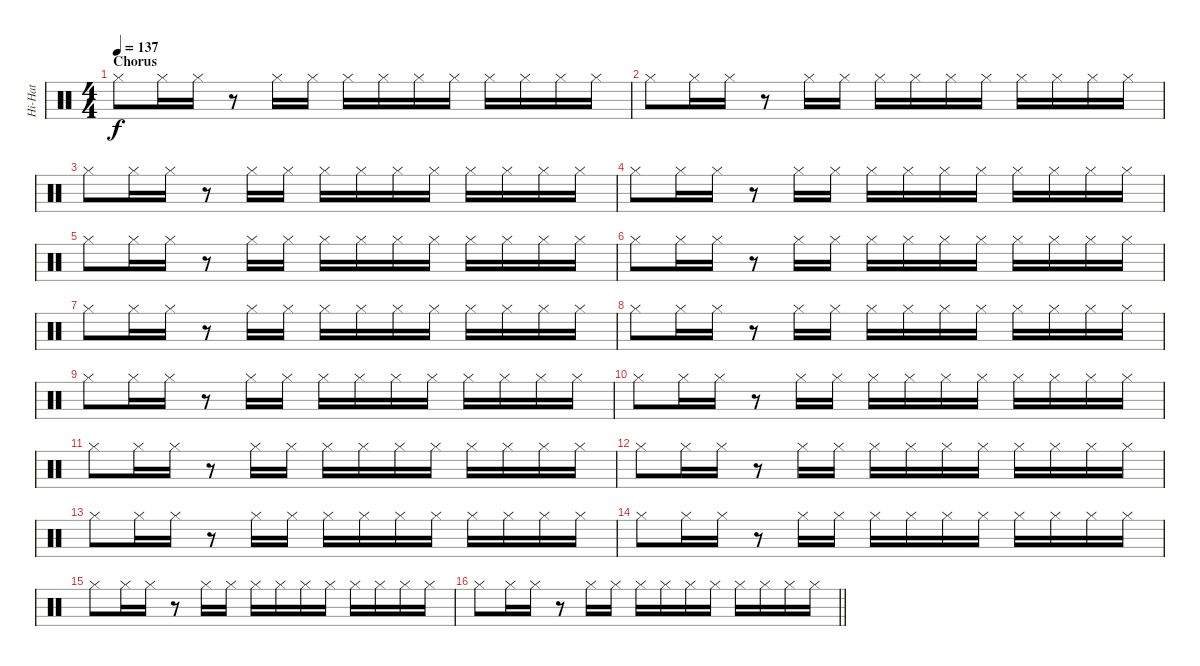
\track ("Hi-Hat" "Hi-Hat") {instrument percussion}
\staff {score}
\articulation defaults
\ts (4 4)
\section ("" "Chorus")
\tempo 137
\clef neutral
\ks c "Hi-Hat (closed)".8{dy f} "Hi-Hat (closed)".16 "Hi-Hat (closed)".16
r.8 "Hi-Hat (closed)".16 "Hi-Hat (closed)".16 "Hi-Hat (closed)".16 "Hi-Hat (closed)".16 "Hi-Hat (closed)".16 "Hi-Hat (closed)".16 "Hi-Hat (closed)".16 "Hi-Hat (closed)".16 "Hi-Hat (closed)".16 "Hi-Hat (closed)".16 |
"Hi-Hat (closed)".8 "Hi-Hat (closed)".16 "Hi-Hat (closed)".16 r.8 "Hi-Hat (closed)".16 "Hi-Hat (closed)".16 "Hi-Hat (closed)".16 "Hi-Hat (closed)".16 "Hi-Hat (closed)".16 "Hi-Hat (closed)".16 "Hi-Hat (closed)".16 "Hi-Hat (closed)".16 "Hi-Hat (closed)".16 "Hi-Hat (closed)".16 |
"Hi-Hat (closed)".8 "Hi-Hat (closed)".16 "Hi-Hat (closed)".16 r.8 "Hi-Hat (closed)".16 "Hi-Hat (closed)".16 "Hi-Hat (closed)".16 "Hi-Hat (closed)".16 "Hi-Hat (closed)".16 "Hi-Hat (closed)".16 "Hi-Hat (closed)".16 "Hi-Hat (closed)".16 "Hi-Hat (closed)".16 "Hi-Hat (closed)".16 |
"Hi-Hat (closed)".8 "Hi-Hat (closed)".16 "Hi-Hat (closed)".16 r.8 "Hi-Hat (closed)".16 "Hi-Hat (closed)".16 "Hi-Hat (closed)".16 "Hi-Hat (closed)".16 "Hi-Hat (closed)".16 "Hi-Hat (closed)".16 "Hi-Hat (closed)".16 "Hi-Hat (closed)".16 "Hi-Hat (closed)".16 "Hi-Hat (closed)".16 |
"Hi-Hat (closed)".8 "Hi-Hat (closed)".16 "Hi-Hat (closed)".16 r.8 "Hi-Hat (closed)".16 "Hi-Hat (closed)".16 "Hi-Hat (closed)".16 "Hi-Hat (closed)".16 "Hi-Hat (closed)".16 "Hi-Hat (closed)".16 "Hi-Hat (closed)".16 "Hi-Hat (closed)".16 "Hi-Hat (closed)".16 "Hi-Hat (closed)".16 |
"Hi-Hat (closed)".8 "Hi-Hat (closed)".16 "Hi-Hat (closed)".16 r.8 "Hi-Hat (closed)".16 "Hi-Hat (closed)".16 "Hi-Hat (closed)".16 "Hi-Hat (closed)".16 "Hi-Hat (closed)".16 "Hi-Hat (closed)".16 "Hi-Hat (closed)".16 "Hi-Hat (closed)".16 "Hi-Hat (closed)".16 "Hi-Hat (closed)".16 |
"Hi-Hat (closed)".8 "Hi-Hat (closed)".16 "Hi-Hat (closed)".16 r.8 "Hi-Hat (closed)".16 "Hi-Hat (closed)".16 "Hi-Hat (closed)".16 "Hi-Hat (closed)".16 "Hi-Hat (closed)".16 "Hi-Hat (closed)".16 "Hi-Hat (closed)".16 "Hi-Hat (closed)".16 "Hi-Hat (closed)".16 "Hi-Hat (closed)".16 |
"Hi-Hat (closed)".8 "Hi-Hat (closed)".16 "Hi-Hat (closed)".16 r.8 "Hi-Hat (closed)".16 "Hi-Hat (closed)".16 "Hi-Hat (closed)".16 "Hi-Hat (closed)".16 "Hi-Hat (closed)".16 "Hi-Hat (closed)".16 "Hi-Hat (closed)".16 "Hi-Hat (closed)".16 "Hi-Hat (closed)".16 "Hi-Hat (closed)".16 |
"Hi-Hat (closed)".8 "Hi-Hat (closed)".16 "Hi-Hat (closed)".16 r.8 "Hi-Hat (closed)".16 "Hi-Hat (closed)".16 "Hi-Hat (closed)".16 "Hi-Hat (closed)".16 "Hi-Hat (closed)".16 "Hi-Hat (closed)".16 "Hi-Hat (closed)".16 "Hi-Hat (closed)".16 "Hi-Hat (closed)".16 "Hi-Hat (closed)".16 |
"Hi-Hat (closed)".8 "Hi-Hat (closed)".16 "Hi-Hat (closed)".16 r.8 "Hi-Hat (closed)".16 "Hi-Hat (closed)".16 "Hi-Hat (closed)".16 "Hi-Hat (closed)".16 "Hi-Hat (closed)".16 "Hi-Hat (closed)".16 "Hi-Hat (closed)".16 "Hi-Hat (closed)".16 "Hi-Hat (closed)".16 "Hi-Hat (closed)".16 |
"Hi-Hat (closed)".8 "Hi-Hat (closed)".16 "Hi-Hat (closed)".16 r.8 "Hi-Hat (closed)".16 "Hi-Hat (closed)".16 "Hi-Hat (closed)".16 "Hi-Hat (closed)".16 "Hi-Hat (closed)".16 "Hi-Hat (closed)".16 "Hi-Hat (closed)".16 "Hi-Hat (closed)".16 "Hi-Hat (closed)".16 "Hi-Hat (closed)".16 |
"Hi-Hat (closed)".8 "Hi-Hat (closed)".16 "Hi-Hat (closed)".16 r.8 "Hi-Hat (closed)".16 "Hi-Hat (closed)".16 "Hi-Hat (closed)".16 "Hi-Hat (closed)".16 "Hi-Hat (closed)".16 "Hi-Hat (closed)".16 "Hi-Hat (closed)".16 "Hi-Hat (closed)".16 "Hi-Hat (closed)".16 "Hi-Hat (closed)".16 |
"Hi-Hat (closed)".8 "Hi-Hat (closed)".16 "Hi-Hat (closed)".16 r.8 "Hi-Hat (closed)".16 "Hi-Hat (closed)".16 "Hi-Hat (closed)".16 "Hi-Hat (closed)".16 "Hi-Hat (closed)".16 "Hi-Hat (closed)".16 "Hi-Hat (closed)".16 "Hi-Hat (closed)".16 "Hi-Hat (closed)".16 "Hi-Hat (closed)".16 |
"Hi-Hat (closed)".8 "Hi-Hat (closed)".16 "Hi-Hat (closed)".16 r.8 "Hi-Hat (closed)".16 "Hi-Hat (closed)".16 "Hi-Hat (closed)".16 "Hi-Hat (closed)".16 "Hi-Hat (closed)".16 "Hi-Hat (closed)".16 "Hi-Hat (closed)".16 "Hi-Hat (closed)".16 "Hi-Hat (closed)".16 "Hi-Hat (closed)".16 |
"Hi-Hat (closed)".8 "Hi-Hat (closed)".16 "Hi-Hat (closed)".16 r.8 "Hi-Hat (closed)".16 "Hi-Hat (closed)".16 "Hi-Hat (closed)".16 "Hi-Hat (closed)".16 "Hi-Hat (closed)".16 "Hi-Hat (closed)".16 "Hi-Hat (closed)".16 "Hi-Hat (closed)".16 "Hi-Hat (closed)".16 "Hi-Hat (closed)".16 |
\barLineRight lightlight "Hi-Hat (closed)".8 "Hi-Hat (closed)".16 "Hi-Hat (closed)".16
r.8 "Hi-Hat (closed)".16 "Hi-Hat (closed)".16 "Hi-Hat (closed)".16 "Hi-Hat (closed)".16 "Hi-Hat (closed)".16 "Hi-Hat (closed)".16 "Hi-Hat (closed)".16 "Hi-Hat (closed)".16 "Hi-Hat (closed)".16 "Hi-Hat (closed)".16
